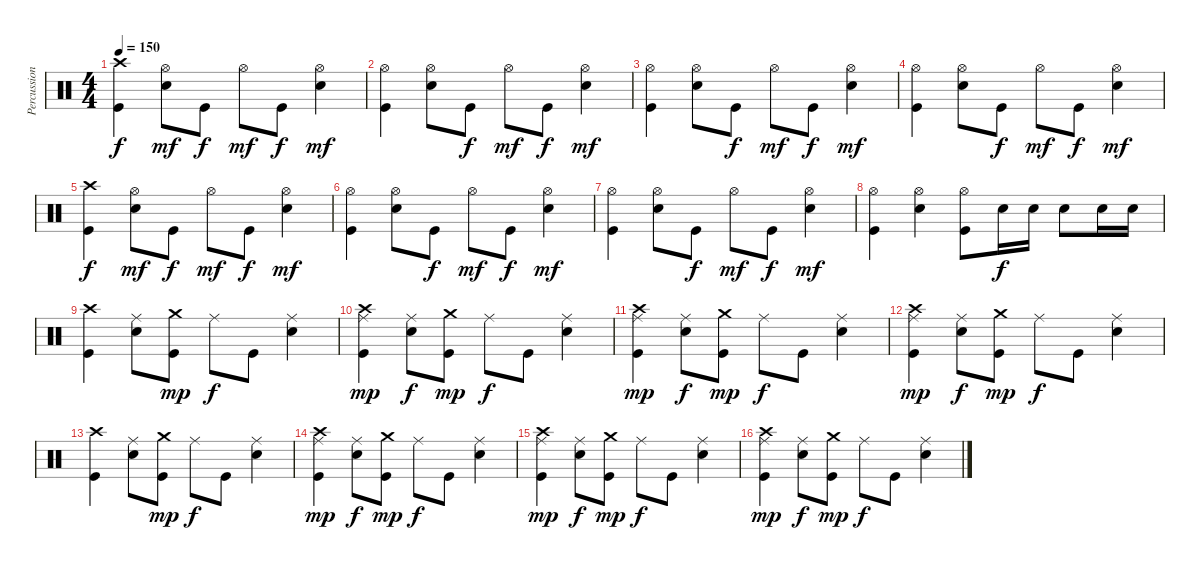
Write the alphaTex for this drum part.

\track ("Percussions" "Percussion") {instrument percussion}
\staff {score}
\articulation defaults
\ts (4 4)
\tempo 150
\clef neutral
\ks c
("Kick (hit)" "Crash high (hit)").4{dy f} ("Electric Snare (hit)" "Hi-Hat (open)").8{dy mf} "Kick (hit)".8{dy f} "Hi-Hat (open)".8{dy mf} "Kick (hit)".8{dy f} ("Electric Snare (hit)" "Hi-Hat (open)").4{dy mf} |
("Kick (hit)" "Hi-Hat (open)").4 ("Electric Snare (hit)" "Hi-Hat (open)").8 "Kick (hit)".8{dy f} "Hi-Hat (open)".8{dy mf} "Kick (hit)".8{dy f} ("Electric Snare (hit)" "Hi-Hat (open)").4{dy mf} |
("Kick (hit)" "Hi-Hat (open)").4 ("Electric Snare (hit)" "Hi-Hat (open)").8 "Kick (hit)".8{dy f} "Hi-Hat (open)".8{dy mf} "Kick (hit)".8{dy f} ("Electric Snare (hit)" "Hi-Hat (open)").4{dy mf} |
("Kick (hit)" "Hi-Hat (open)").4 ("Electric Snare (hit)" "Hi-Hat (open)").8 "Kick (hit)".8{dy f} "Hi-Hat (open)".8{dy mf} "Kick (hit)".8{dy f} ("Electric Snare (hit)" "Hi-Hat (open)").4{dy mf} |
("Kick (hit)" "Crash high (hit)").4{dy f} ("Electric Snare (hit)" "Hi-Hat (open)").8{dy mf} "Kick (hit)".8{dy f} "Hi-Hat (open)".8{dy mf} "Kick (hit)".8{dy f} ("Electric Snare (hit)" "Hi-Hat (open)").4{dy mf} |
("Kick (hit)" "Hi-Hat (open)").4 ("Electric Snare (hit)" "Hi-Hat (open)").8 "Kick (hit)".8{dy f} "Hi-Hat (open)".8{dy mf} "Kick (hit)".8{dy f} ("Electric Snare (hit)" "Hi-Hat (open)").4{dy mf} |
("Kick (hit)" "Hi-Hat (open)").4 ("Electric Snare (hit)" "Hi-Hat (open)").8 "Kick (hit)".8{dy f} "Hi-Hat (open)".8{dy mf} "Kick (hit)".8{dy f} ("Electric Snare (hit)" "Hi-Hat (open)").4{dy mf} |
("Kick (hit)" "Hi-Hat (open)").4 ("Electric Snare (hit)" "Hi-Hat (open)").4 ("Kick (hit)" "Hi-Hat (open)").8 "Electric Snare (hit)".16{dy f} "Electric Snare (hit)".16 "Electric Snare (hit)".8 "Electric Snare (hit)".16 "Electric Snare (hit)".16 |
("Kick (hit)" "Crash high (hit)").4 ("Electric Snare (hit)" "Ride (middle)").8 ("Kick (hit)" "Crash medium (hit)").8{dy mp} "Ride (middle)".8{dy f} "Kick (hit)".8 ("Electric Snare (hit)" "Ride (middle)").4 |
("Kick (hit)" "Ride (middle)" "Crash high (hit)").4{dy mp} ("Electric Snare (hit)" "Ride (middle)").8{dy f} ("Kick (hit)" "Crash medium (hit)").8{dy mp} "Ride (middle)".8{dy f} "Kick (hit)".8 ("Electric Snare (hit)" "Ride (middle)").4 |
("Kick (hit)" "Ride (middle)" "Crash high (hit)").4{dy mp} ("Electric Snare (hit)" "Ride (middle)").8{dy f} ("Kick (hit)" "Crash medium (hit)").8{dy mp} "Ride (middle)".8{dy f} "Kick (hit)".8 ("Electric Snare (hit)" "Ride (middle)").4 |
("Kick (hit)" "Ride (middle)" "Crash high (hit)").4{dy mp} ("Electric Snare (hit)" "Ride (middle)").8{dy f} ("Kick (hit)" "Crash medium (hit)").8{dy mp} "Ride (middle)".8{dy f} "Kick (hit)".8 ("Electric Snare (hit)" "Ride (middle)").4 |
("Kick (hit)" "Crash high (hit)").4 ("Electric Snare (hit)" "Ride (middle)").8 ("Kick (hit)" "Crash medium (hit)").8{dy mp} "Ride (middle)".8{dy f} "Kick (hit)".8 ("Electric Snare (hit)" "Ride (middle)").4 |
("Kick (hit)" "Ride (middle)" "Crash high (hit)").4{dy mp} ("Electric Snare (hit)" "Ride (middle)").8{dy f} ("Kick (hit)" "Crash medium (hit)").8{dy mp} "Ride (middle)".8{dy f} "Kick (hit)".8 ("Electric Snare (hit)" "Ride (middle)").4 |
("Kick (hit)" "Ride (middle)" "Crash high (hit)").4{dy mp} ("Electric Snare (hit)" "Ride (middle)").8{dy f} ("Kick (hit)" "Crash medium (hit)").8{dy mp} "Ride (middle)".8{dy f} "Kick (hit)".8 ("Electric Snare (hit)" "Ride (middle)").4 |
("Kick (hit)" "Ride (middle)" "Crash high (hit)").4{dy mp} ("Electric Snare (hit)" "Ride (middle)").8{dy f} ("Kick (hit)" "Crash medium (hit)").8{dy mp} "Ride (middle)".8{dy f} "Kick (hit)".8 ("Electric Snare (hit)" "Ride (middle)").4
